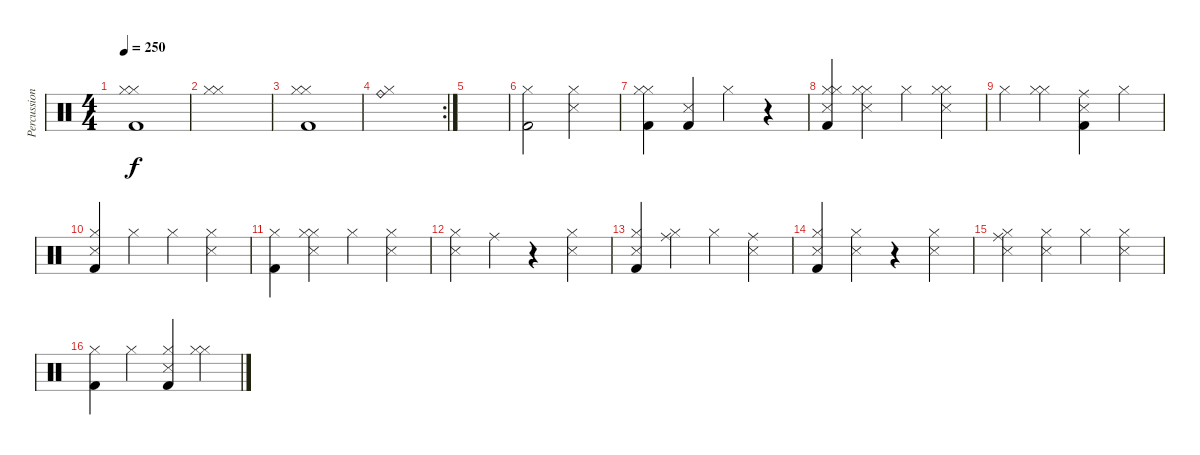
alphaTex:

\track ("Percussion" "Percussion") {instrument percussion}
\staff {score}
\articulation defaults
\ts (4 4)
\tempo 250
\clef neutral
\ks c
("Kick (hit) 2" "Hi-Hat (closed)" "Hi-Hat (closed)").1{dy f} |
("Hi-Hat (closed)" "Hi-Hat (closed)").1 |
("Kick (hit) 2" "Hi-Hat (closed)" "Hi-Hat (closed)").1 |
\rc 2
("Ride (bell)" "Hi-Hat (closed)").1 |
|
("Kick (hit) 2" "Hi-Hat (closed)").2 ("Hi-Hat (closed)" "Snare (side stick) 3").2 |
("Kick (hit) 2" "Hi-Hat (closed)" "Hi-Hat (closed)").4 ("Kick (hit) 2" "Snare (side stick) 3").4 "Hi-Hat (closed)".4 r.4 |
("Kick (hit) 2" "Snare (side stick) 3" "Hi-Hat (closed)" "Hi-Hat (closed)").4 ("Snare (side stick) 3" "Hi-Hat (closed)" "Hi-Hat (closed)").4 "Hi-Hat (closed)".4 ("Snare (side stick) 3" "Hi-Hat (closed)" "Hi-Hat (closed)").4 |
"Hi-Hat (closed)".4 ("Hi-Hat (closed)" "Hi-Hat (closed)").4 ("Kick (hit) 2" "Snare (side stick) 3" "Ride (middle)").4 "Hi-Hat (closed)".4 |
("Kick (hit) 2" "Snare (side stick) 3" "Hi-Hat (closed)").4 "Hi-Hat (closed)".4 "Hi-Hat (closed)".4 ("Snare (side stick) 3" "Hi-Hat (closed)").4 |
("Kick (hit) 2" "Hi-Hat (closed)").4 ("Snare (side stick) 3" "Hi-Hat (closed)" "Hi-Hat (closed)").4 "Hi-Hat (closed)".4 ("Snare (side stick) 3" "Hi-Hat (closed)").4 |
("Snare (side stick) 3" "Hi-Hat (closed)").4 "Ride (middle)".4 r.4 ("Snare (side stick) 3" "Hi-Hat (closed)").4 |
("Kick (hit) 2" "Snare (side stick) 3" "Hi-Hat (closed)").4 ("Ride (middle)" "Hi-Hat (closed)").4 "Hi-Hat (closed)".4 ("Snare (side stick) 3" "Ride (middle)").4 |
("Kick (hit) 2" "Snare (side stick) 3" "Hi-Hat (closed)").4 ("Snare (side stick) 3" "Hi-Hat (closed)").4 r.4 ("Snare (side stick) 3" "Hi-Hat (closed)").4 |
("Snare (side stick) 3" "Ride (middle)" "Hi-Hat (closed)").4 ("Snare (side stick) 3" "Hi-Hat (closed)").4 "Hi-Hat (closed)".4 ("Snare (side stick) 3" "Hi-Hat (closed)").4 |
("Kick (hit) 2" "Hi-Hat (closed)").4 "Hi-Hat (closed)".4 ("Kick (hit) 2" "Snare (side stick) 3" "Hi-Hat (closed)").4 ("Hi-Hat (closed)" "Hi-Hat (closed)").4
